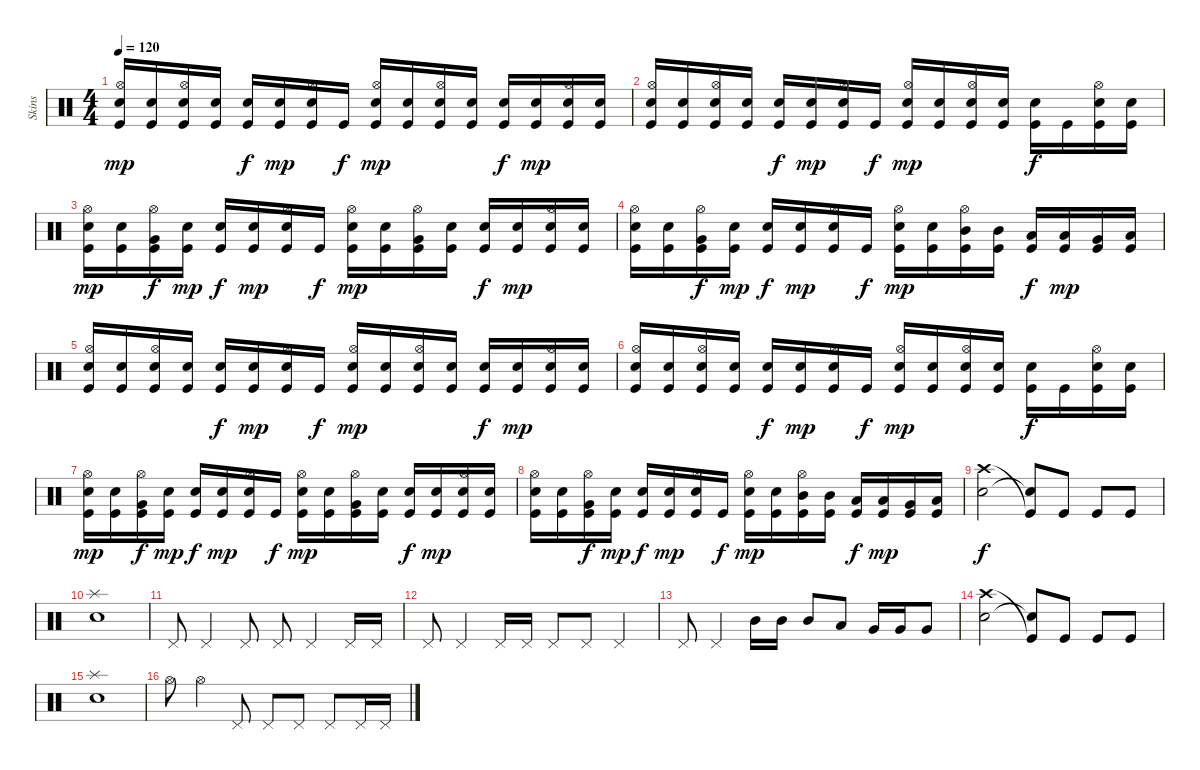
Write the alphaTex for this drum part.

\track ("Skins" "Skins") {instrument percussion}
\staff {score}
\articulation defaults
\ts (4 4)
\tempo 120
\clef neutral
\ks c
("Electric Snare (hit)" "Hi-Hat (open)" "Kick (hit)").16{dy mp} ("Electric Snare (hit)" "Kick (hit)").16 ("Electric Snare (hit)" "Hi-Hat (open)" "Kick (hit)").16 ("Electric Snare (hit)" "Kick (hit)").16 ("Snare (hit) 2" "Kick (hit)").16{dy f} ("Electric Snare (hit)" "Kick (hit)").16{dy mp} ("Electric Snare (hit)" "Hi-Hat (open)" "Kick (hit)").16 "Kick (hit)".16{dy f} ("Electric Snare (hit)" "Hi-Hat (open)" "Kick (hit)").16{dy mp} ("Electric Snare (hit)" "Kick (hit)").16 ("Electric Snare (hit)" "Hi-Hat (open)" "Kick (hit)").16 ("Electric Snare (hit)" "Kick (hit)").16 ("Snare (hit) 2" "Kick (hit)").16{dy f} ("Electric Snare (hit)" "Kick (hit)").16{dy mp} ("Electric Snare (hit)" "Hi-Hat (open)" "Kick (hit)").16 ("Electric Snare (hit)" "Kick (hit)").16 |
("Electric Snare (hit)" "Hi-Hat (open)" "Kick (hit)").16 ("Electric Snare (hit)" "Kick (hit)").16 ("Electric Snare (hit)" "Hi-Hat (open)" "Kick (hit)").16 ("Electric Snare (hit)" "Kick (hit)").16 ("Snare (hit) 2" "Kick (hit)").16{dy f} ("Electric Snare (hit)" "Kick (hit)").16{dy mp} ("Electric Snare (hit)" "Hi-Hat (open)" "Kick (hit)").16 "Kick (hit)".16{dy f} ("Electric Snare (hit)" "Hi-Hat (open)" "Kick (hit)").16{dy mp} ("Electric Snare (hit)" "Kick (hit)").16 ("Electric Snare (hit)" "Hi-Hat (open)" "Kick (hit)").16 ("Electric Snare (hit)" "Kick (hit)").16 ("Snare (hit) 2" "Kick (hit)").16{dy f} "Kick (hit)".16 ("Snare (hit) 2" "Hi-Hat (open)" "Kick (hit)").16 ("Snare (hit) 2" "Kick (hit)").16 |
("Electric Snare (hit)" "Hi-Hat (open)" "Kick (hit)").16{dy mp} ("Electric Snare (hit)" "Kick (hit)").16 ("Very Low Tom (hit)" "Hi-Hat (open)" "Kick (hit)").16{dy f} ("Electric Snare (hit)" "Kick (hit)").16{dy mp} ("Snare (hit) 2" "Kick (hit)").16{dy f} ("Electric Snare (hit)" "Kick (hit)").16{dy mp} ("Electric Snare (hit)" "Hi-Hat (open)" "Kick (hit)").16 "Kick (hit)".16{dy f} ("Electric Snare (hit)" "Hi-Hat (open)" "Kick (hit)").16{dy mp} ("Electric Snare (hit)" "Kick (hit)").16 ("Very Low Tom (hit)" "Hi-Hat (open)" "Kick (hit)").16 ("Electric Snare (hit)" "Kick (hit)").16 ("Snare (hit) 2" "Kick (hit)").16{dy f} ("Electric Snare (hit)" "Kick (hit)").16{dy mp} ("Electric Snare (hit)" "Hi-Hat (open)" "Kick (hit)").16 ("Electric Snare (hit)" "Kick (hit)").16 |
("Electric Snare (hit)" "Hi-Hat (open)" "Kick (hit)").16 ("Electric Snare (hit)" "Kick (hit)").16 ("Very Low Tom (hit)" "Hi-Hat (open)" "Kick (hit)").16{dy f} ("Electric Snare (hit)" "Kick (hit)").16{dy mp} ("Snare (hit) 2" "Kick (hit)").16{dy f} ("Electric Snare (hit)" "Kick (hit)").16{dy mp} ("Electric Snare (hit)" "Hi-Hat (open)" "Kick (hit)").16 "Kick (hit)".16{dy f} ("Electric Snare (hit)" "Hi-Hat (open)" "Kick (hit)").16{dy mp} ("Electric Snare (hit)" "Kick (hit)").16 ("Mid Tom (hit)" "Hi-Hat (open)" "Kick (hit)").16 ("Mid Tom (hit)" "Kick (hit)").16 ("Low Tom (hit)" "Kick (hit)").16{dy f} ("Low Tom (hit)" "Kick (hit)").16{dy mp} ("Very Low Tom (hit)" "Kick (hit)").16 ("Low Floor Tom (hit)" "Kick (hit)").16 |
("Electric Snare (hit)" "Hi-Hat (open)" "Kick (hit)").16 ("Electric Snare (hit)" "Kick (hit)").16 ("Electric Snare (hit)" "Hi-Hat (open)" "Kick (hit)").16 ("Electric Snare (hit)" "Kick (hit)").16 ("Snare (hit) 2" "Kick (hit)").16{dy f} ("Electric Snare (hit)" "Kick (hit)").16{dy mp} ("Electric Snare (hit)" "Hi-Hat (open)" "Kick (hit)").16 "Kick (hit)".16{dy f} ("Electric Snare (hit)" "Hi-Hat (open)" "Kick (hit)").16{dy mp} ("Electric Snare (hit)" "Kick (hit)").16 ("Electric Snare (hit)" "Hi-Hat (open)" "Kick (hit)").16 ("Electric Snare (hit)" "Kick (hit)").16 ("Snare (hit) 2" "Kick (hit)").16{dy f} ("Electric Snare (hit)" "Kick (hit)").16{dy mp} ("Electric Snare (hit)" "Hi-Hat (open)" "Kick (hit)").16 ("Electric Snare (hit)" "Kick (hit)").16 |
("Electric Snare (hit)" "Hi-Hat (open)" "Kick (hit)").16 ("Electric Snare (hit)" "Kick (hit)").16 ("Electric Snare (hit)" "Hi-Hat (open)" "Kick (hit)").16 ("Electric Snare (hit)" "Kick (hit)").16 ("Snare (hit) 2" "Kick (hit)").16{dy f} ("Electric Snare (hit)" "Kick (hit)").16{dy mp} ("Electric Snare (hit)" "Hi-Hat (open)" "Kick (hit)").16 "Kick (hit)".16{dy f} ("Electric Snare (hit)" "Hi-Hat (open)" "Kick (hit)").16{dy mp} ("Electric Snare (hit)" "Kick (hit)").16 ("Electric Snare (hit)" "Hi-Hat (open)" "Kick (hit)").16 ("Electric Snare (hit)" "Kick (hit)").16 ("Snare (hit) 2" "Kick (hit)").16{dy f} "Kick (hit)".16 ("Snare (hit) 2" "Hi-Hat (open)" "Kick (hit)").16 ("Snare (hit) 2" "Kick (hit)").16 |
("Electric Snare (hit)" "Hi-Hat (open)" "Kick (hit)").16{dy mp} ("Electric Snare (hit)" "Kick (hit)").16 ("Very Low Tom (hit)" "Hi-Hat (open)" "Kick (hit)").16{dy f} ("Electric Snare (hit)" "Kick (hit)").16{dy mp} ("Snare (hit) 2" "Kick (hit)").16{dy f} ("Electric Snare (hit)" "Kick (hit)").16{dy mp} ("Electric Snare (hit)" "Hi-Hat (open)" "Kick (hit)").16 "Kick (hit)".16{dy f} ("Electric Snare (hit)" "Hi-Hat (open)" "Kick (hit)").16{dy mp} ("Electric Snare (hit)" "Kick (hit)").16 ("Very Low Tom (hit)" "Hi-Hat (open)" "Kick (hit)").16 ("Electric Snare (hit)" "Kick (hit)").16 ("Snare (hit) 2" "Kick (hit)").16{dy f} ("Electric Snare (hit)" "Kick (hit)").16{dy mp} ("Electric Snare (hit)" "Hi-Hat (open)" "Kick (hit)").16 ("Electric Snare (hit)" "Kick (hit)").16 |
("Electric Snare (hit)" "Hi-Hat (open)" "Kick (hit)").16 ("Electric Snare (hit)" "Kick (hit)").16 ("Very Low Tom (hit)" "Hi-Hat (open)" "Kick (hit)").16{dy f} ("Electric Snare (hit)" "Kick (hit)").16{dy mp} ("Snare (hit) 2" "Kick (hit)").16{dy f} ("Electric Snare (hit)" "Kick (hit)").16{dy mp} ("Electric Snare (hit)" "Hi-Hat (open)" "Kick (hit)").16 "Kick (hit)".16{dy f} ("Electric Snare (hit)" "Hi-Hat (open)" "Kick (hit)").16{dy mp} ("Electric Snare (hit)" "Kick (hit)").16 ("Mid Tom (hit)" "Hi-Hat (open)" "Kick (hit)").16 ("Mid Tom (hit)" "Kick (hit)").16 ("Low Tom (hit)" "Kick (hit)").16{dy f} ("Low Tom (hit)" "Kick (hit)").16{dy mp} ("Very Low Tom (hit)" "Kick (hit)").16 ("Low Floor Tom (hit)" "Kick (hit)").16 |
("Electric Snare (hit)" "Crash high (hit)").2{dy f} ("Snare (hit)"{t} "Kick (hit)"{t}).8 "Kick (hit)".8 "Kick (hit)".8 "Kick (hit)".8 |
("Electric Snare (hit)" "Splash (hit)").1 |
"Pedal Hi-Hat (hit)".8 "Pedal Hi-Hat (hit)".4 "Pedal Hi-Hat (hit)".8 "Pedal Hi-Hat (hit)".8 "Pedal Hi-Hat (hit)".4 "Pedal Hi-Hat (hit)".16 "Pedal Hi-Hat (hit)".16 |
"Pedal Hi-Hat (hit)".8 "Pedal Hi-Hat (hit)".4 "Pedal Hi-Hat (hit)".16 "Pedal Hi-Hat (hit)".16 "Pedal Hi-Hat (hit)".8 "Pedal Hi-Hat (hit)".8 "Pedal Hi-Hat (hit)".4 |
"Pedal Hi-Hat (hit)".8 "Pedal Hi-Hat (hit)".4 "Mid Tom (hit)".16 "Mid Tom (hit)".16 "Mid Tom (hit)".8 "Low Tom (hit)".8 "Very Low Tom (hit)".16 "Very Low Tom (hit)".16 "Very Low Tom (hit)".8 |
("Electric Snare (hit)" "Crash high (hit)").2 ("Snare (hit)"{t} "Kick (hit)"{t}).8 "Kick (hit)".8 "Kick (hit)".8 "Kick (hit)".8 |
("Electric Snare (hit)" "Splash (hit)").1 |
"Hi-Hat (open)".8 "Hi-Hat (open)".4 "Pedal Hi-Hat (hit)".8 "Pedal Hi-Hat (hit)".8 "Pedal Hi-Hat (hit)".8 "Pedal Hi-Hat (hit)".8 "Pedal Hi-Hat (hit)".16 "Pedal Hi-Hat (hit)".16
